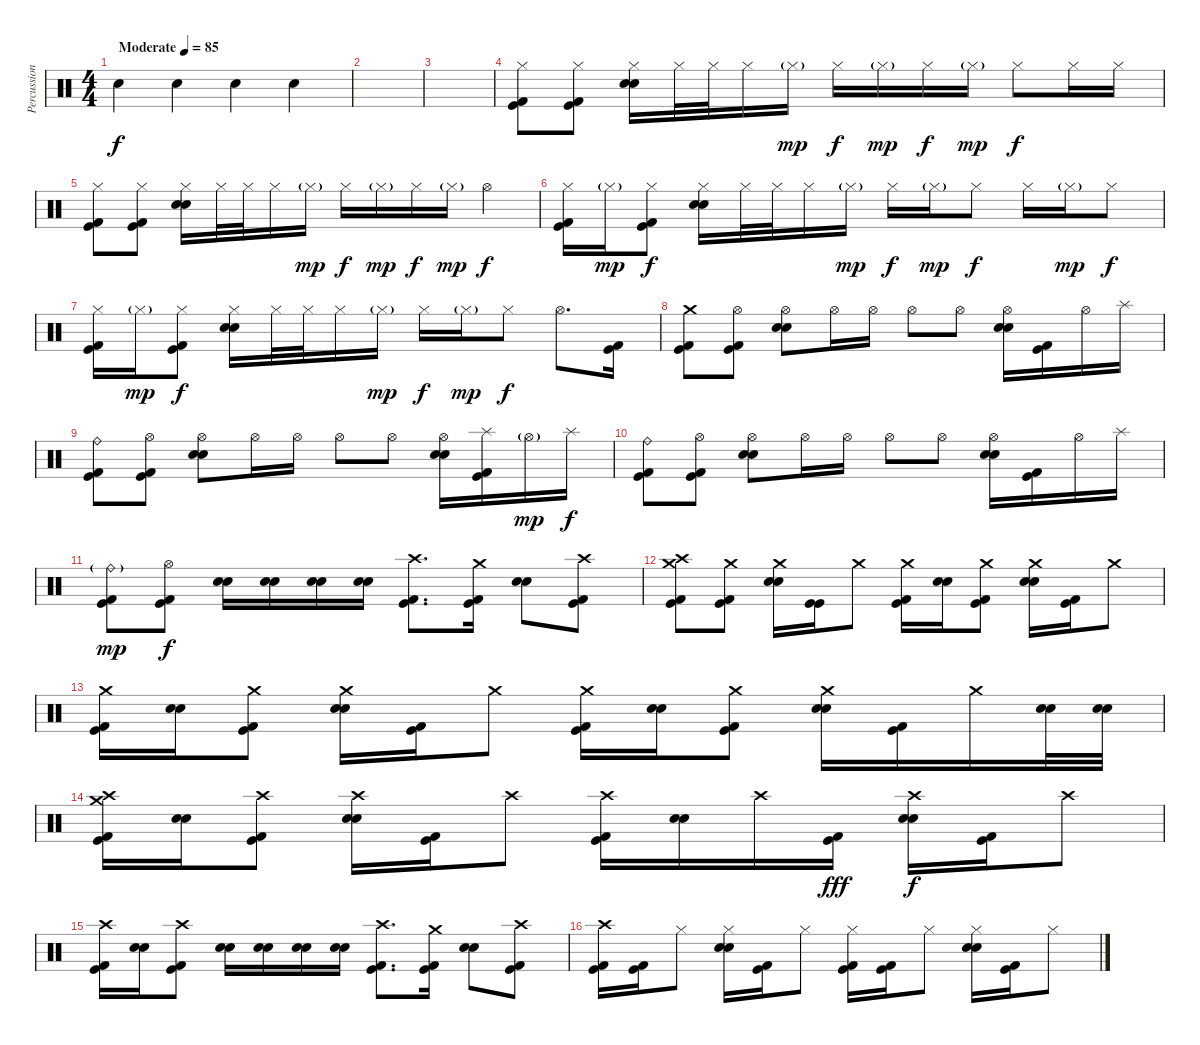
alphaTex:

\track ("Percussion" "Percussion") {instrument percussion}
\staff {score}
\articulation defaults
\ts (4 4)
\tempo (85 "Moderate")
\clef neutral
\ks c "Snare (hit) 2".4{dy f} "Snare (hit) 2".4 "Snare (hit) 2".4 "Snare (hit) 2".4
|
|
|
("Hi-Hat (closed)" "Kick (hit)" "Kick (hit) 2").8 ("Hi-Hat (closed)" "Kick (hit)" "Kick (hit) 2").8 ("Hi-Hat (closed)" "Electric Snare (hit)" "Snare (hit) 2").16 "Hi-Hat (closed)".32 "Hi-Hat (closed)".32 "Hi-Hat (closed)".16 "Hi-Hat (closed)"{g}.16{dy mp} "Hi-Hat (closed)".16{dy f} "Hi-Hat (closed)"{g}.16{dy mp} "Hi-Hat (closed)".16{dy f} "Hi-Hat (closed)"{g}.16{dy mp} "Hi-Hat (closed)".8{dy f} "Hi-Hat (closed)".16 "Hi-Hat (closed)".16 |
("Hi-Hat (closed)" "Kick (hit)" "Kick (hit) 2").8 ("Hi-Hat (closed)" "Kick (hit)" "Kick (hit) 2").8 ("Hi-Hat (closed)" "Electric Snare (hit)" "Snare (hit) 2").16 "Hi-Hat (closed)".32 "Hi-Hat (closed)".32 "Hi-Hat (closed)".16 "Hi-Hat (closed)"{g}.16{dy mp} "Hi-Hat (closed)".16{dy f} "Hi-Hat (closed)"{g}.16{dy mp} "Hi-Hat (closed)".16{dy f} "Hi-Hat (closed)"{g}.16{dy mp} "Hi-Hat (open)".4{dy f} |
("Hi-Hat (closed)" "Kick (hit)" "Kick (hit) 2").16 "Hi-Hat (closed)"{g}.16{dy mp} ("Hi-Hat (closed)" "Kick (hit)" "Kick (hit) 2").8{dy f} ("Hi-Hat (closed)" "Electric Snare (hit)" "Snare (hit) 2").16 "Hi-Hat (closed)".32 "Hi-Hat (closed)".32 "Hi-Hat (closed)".16 "Hi-Hat (closed)"{g}.16{dy mp} "Hi-Hat (closed)".16{dy f} "Hi-Hat (closed)"{g}.16{dy mp} "Hi-Hat (closed)".8{dy f} "Hi-Hat (closed)".16 "Hi-Hat (closed)"{g}.16{dy mp} "Hi-Hat (closed)".8{dy f} |
("Hi-Hat (closed)" "Kick (hit)" "Kick (hit) 2").16 "Hi-Hat (closed)"{g}.16{dy mp} ("Hi-Hat (closed)" "Kick (hit)" "Kick (hit) 2").8{dy f} ("Hi-Hat (closed)" "Electric Snare (hit)" "Snare (hit) 2").16 "Hi-Hat (closed)".32 "Hi-Hat (closed)".32 "Hi-Hat (closed)".16 "Hi-Hat (closed)"{g}.16{dy mp} "Hi-Hat (closed)".16{dy f} "Hi-Hat (closed)"{g}.16{dy mp} "Hi-Hat (closed)".8{dy f} "Hi-Hat (open)".8{d} ("Kick (hit)" "Kick (hit) 2").16 |
("Crash medium (hit)" "Kick (hit)" "Kick (hit) 2").8 ("Hi-Hat (open)" "Kick (hit)" "Kick (hit) 2").8 ("Hi-Hat (open)" "Electric Snare (hit)" "Snare (hit) 2").8 "Hi-Hat (open)".16 "Hi-Hat (open)".16 "Hi-Hat (open)".8 "Hi-Hat (open)".8 ("Hi-Hat (open)" "Electric Snare (hit)" "Snare (hit) 2").16 ("Kick (hit)" "Kick (hit) 2").16 "Hi-Hat (open)".16 "Splash (hit)".16 |
("Ride (bell)" "Kick (hit)" "Kick (hit) 2").8 ("Hi-Hat (open)" "Kick (hit)" "Kick (hit) 2").8 ("Hi-Hat (open)" "Electric Snare (hit)" "Snare (hit) 2").8 "Hi-Hat (open)".16 "Hi-Hat (open)".16 "Hi-Hat (open)".8 "Hi-Hat (open)".8 ("Hi-Hat (open)" "Electric Snare (hit)" "Snare (hit) 2").16 ("Splash (hit)" "Kick (hit)" "Kick (hit) 2").16 "Hi-Hat (open)"{g}.16{dy mp} "Splash (hit)".16{dy f} |
("Ride (bell)" "Kick (hit)" "Kick (hit) 2").8 ("Hi-Hat (open)" "Kick (hit)" "Kick (hit) 2").8 ("Hi-Hat (open)" "Electric Snare (hit)" "Snare (hit) 2").8 "Hi-Hat (open)".16 "Hi-Hat (open)".16 "Hi-Hat (open)".8 "Hi-Hat (open)".8 ("Hi-Hat (open)" "Electric Snare (hit)" "Snare (hit) 2").16 ("Kick (hit)" "Kick (hit) 2").16 "Hi-Hat (open)".16 "Splash (hit)".16 |
("Ride (bell)"{g} "Kick (hit)" "Kick (hit) 2").8{dy mp} ("Hi-Hat (open)" "Kick (hit)" "Kick (hit) 2").8{dy f} ("Electric Snare (hit)" "Snare (hit) 2").16 ("Electric Snare (hit)" "Snare (hit) 2").16 ("Electric Snare (hit)" "Snare (hit) 2").16 ("Electric Snare (hit)" "Snare (hit) 2").16 ("Crash high (hit)" "Kick (hit)" "Kick (hit) 2").8{d} ("Crash medium (hit)" "Kick (hit)" "Kick (hit) 2").16 ("Electric Snare (hit)" "Snare (hit) 2").8 ("Crash high (hit)" "Kick (hit)" "Kick (hit) 2").8 |
("Crash medium (hit)" "Crash high (hit)" "Kick (hit)" "Kick (hit) 2").8 ("Crash medium (hit)" "Kick (hit)" "Kick (hit) 2").8 ("Crash medium (hit)" "Electric Snare (hit)" "Snare (hit) 2").16 ("Kick (hit)" "Kick (hit)").16 "Crash medium (hit)".8 ("Crash medium (hit)" "Kick (hit)" "Kick (hit) 2").16 ("Electric Snare (hit)" "Snare (hit) 2").16 ("Crash medium (hit)" "Kick (hit)" "Kick (hit) 2").8 ("Crash medium (hit)" "Electric Snare (hit)" "Snare (hit) 2").16 ("Kick (hit)" "Kick (hit) 2").16 "Crash medium (hit)".8 |
("Crash medium (hit)" "Kick (hit)" "Kick (hit) 2").16 ("Electric Snare (hit)" "Snare (hit) 2").16 ("Crash medium (hit)" "Kick (hit)" "Kick (hit) 2").8 ("Crash medium (hit)" "Electric Snare (hit)" "Snare (hit) 2").16 ("Kick (hit)" "Kick (hit) 2").16 "Crash medium (hit)".8 ("Crash medium (hit)" "Kick (hit)" "Kick (hit) 2").16 ("Electric Snare (hit)" "Snare (hit) 2").16 ("Crash medium (hit)" "Kick (hit)" "Kick (hit) 2").8 ("Crash medium (hit)" "Electric Snare (hit)" "Snare (hit) 2").16 ("Kick (hit)" "Kick (hit) 2").16 "Crash medium (hit)".16 ("Electric Snare (hit)" "Snare (hit) 2").32 ("Electric Snare (hit)" "Snare (hit) 2").32 |
("Crash high (hit)" "Crash medium (hit)" "Kick (hit)" "Kick (hit) 2").16 ("Electric Snare (hit)" "Snare (hit) 2").16 ("Crash high (hit)" "Kick (hit)" "Kick (hit) 2").8 ("Crash high (hit)" "Electric Snare (hit)" "Snare (hit) 2").16 ("Kick (hit)" "Kick (hit) 2").16 "Crash high (hit)".8 ("Crash high (hit)" "Kick (hit)" "Kick (hit) 2").16 ("Electric Snare (hit)" "Snare (hit) 2").16 "Crash high (hit)".16 ("Kick (hit)" "Kick (hit) 2").16{dy fff} ("Crash high (hit)" "Electric Snare (hit)" "Snare (hit) 2").16{dy f} ("Kick (hit)" "Kick (hit) 2").16 "Crash high (hit)".8 |
("Crash high (hit)" "Kick (hit)" "Kick (hit) 2").16 ("Electric Snare (hit)" "Snare (hit) 2").16 ("Crash high (hit)" "Kick (hit)" "Kick (hit) 2").8 ("Electric Snare (hit)" "Snare (hit) 2").16 ("Electric Snare (hit)" "Snare (hit) 2").16 ("Electric Snare (hit)" "Snare (hit) 2").16 ("Electric Snare (hit)" "Snare (hit) 2").16 ("Crash high (hit)" "Kick (hit)" "Kick (hit) 2").8{d} ("Crash medium (hit)" "Kick (hit)" "Kick (hit) 2").16 ("Electric Snare (hit)" "Snare (hit) 2").8 ("Crash high (hit)" "Kick (hit)" "Kick (hit) 2").8 |
("Crash high (hit)" "Kick (hit)" "Kick (hit) 2").16 ("Kick (hit)" "Kick (hit) 2").16 "Hi-Hat (closed)".8 ("Hi-Hat (closed)" "Electric Snare (hit)" "Snare (hit) 2").16 ("Kick (hit)" "Kick (hit) 2").16 "Hi-Hat (closed)".8 ("Hi-Hat (closed)" "Kick (hit)" "Kick (hit) 2").16 ("Kick (hit)" "Kick (hit) 2").16 "Hi-Hat (closed)".8 ("Hi-Hat (closed)" "Electric Snare (hit)" "Snare (hit) 2").16 ("Kick (hit)" "Kick (hit) 2").16 "Hi-Hat (closed)".8
